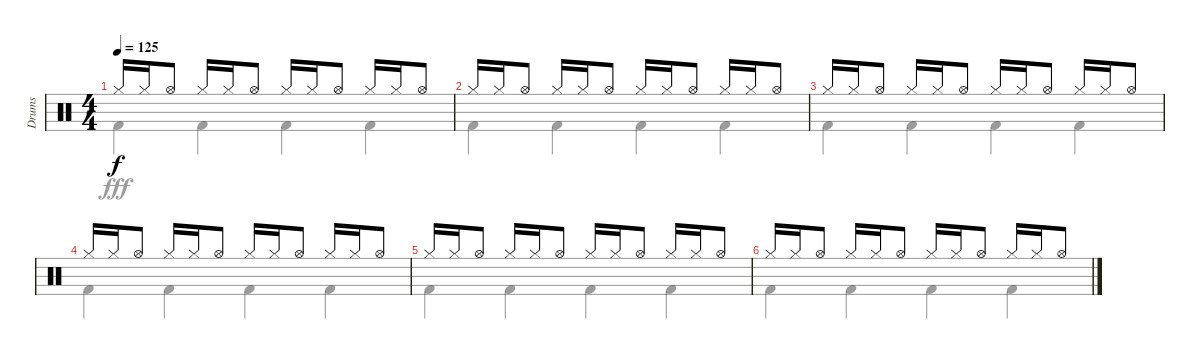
\track ("Drums" "Drums") {instrument percussion}
\staff {score}
\articulation defaults
\voice
\ts (4 4)
\tempo 125
\clef neutral
\ks c "Hi-Hat (closed)".16{dy f} "Hi-Hat (closed)".16 "Hi-Hat (open)".8 "Hi-Hat (closed)".16 "Hi-Hat (closed)".16 "Hi-Hat (open)".8 "Hi-Hat (closed)".16 "Hi-Hat (closed)".16 "Hi-Hat (open)".8 "Hi-Hat (closed)".16 "Hi-Hat (closed)".16 "Hi-Hat (open)".8
|
"Hi-Hat (closed)".16 "Hi-Hat (closed)".16 "Hi-Hat (open)".8 "Hi-Hat (closed)".16 "Hi-Hat (closed)".16 "Hi-Hat (open)".8 "Hi-Hat (closed)".16 "Hi-Hat (closed)".16 "Hi-Hat (open)".8 "Hi-Hat (closed)".16 "Hi-Hat (closed)".16 "Hi-Hat (open)".8 |
"Hi-Hat (closed)".16 "Hi-Hat (closed)".16 "Hi-Hat (open)".8 "Hi-Hat (closed)".16 "Hi-Hat (closed)".16 "Hi-Hat (open)".8 "Hi-Hat (closed)".16 "Hi-Hat (closed)".16 "Hi-Hat (open)".8 "Hi-Hat (closed)".16 "Hi-Hat (closed)".16 "Hi-Hat (open)".8 |
"Hi-Hat (closed)".16 "Hi-Hat (closed)".16 "Hi-Hat (open)".8 "Hi-Hat (closed)".16 "Hi-Hat (closed)".16 "Hi-Hat (open)".8 "Hi-Hat (closed)".16 "Hi-Hat (closed)".16 "Hi-Hat (open)".8 "Hi-Hat (closed)".16 "Hi-Hat (closed)".16 "Hi-Hat (open)".8 |
"Hi-Hat (closed)".16 "Hi-Hat (closed)".16 "Hi-Hat (open)".8 "Hi-Hat (closed)".16 "Hi-Hat (closed)".16 "Hi-Hat (open)".8 "Hi-Hat (closed)".16 "Hi-Hat (closed)".16 "Hi-Hat (open)".8 "Hi-Hat (closed)".16 "Hi-Hat (closed)".16 "Hi-Hat (open)".8 |
"Hi-Hat (closed)".16 "Hi-Hat (closed)".16 "Hi-Hat (open)".8 "Hi-Hat (closed)".16 "Hi-Hat (closed)".16 "Hi-Hat (open)".8 "Hi-Hat (closed)".16 "Hi-Hat (closed)".16 "Hi-Hat (open)".8 "Hi-Hat (closed)".16 "Hi-Hat (closed)".16 "Hi-Hat (open)".8
\voice
\clef neutral
\ottava regular
\simile none
\ks c "Kick (hit) 2".4{dy fff} "Kick (hit) 2".4 "Kick (hit) 2".4 "Kick (hit) 2".4
|
"Kick (hit) 2".4 "Kick (hit) 2".4 "Kick (hit) 2".4 "Kick (hit) 2".4 |
"Kick (hit) 2".4 "Kick (hit) 2".4 "Kick (hit) 2".4 "Kick (hit) 2".4 |
"Kick (hit) 2".4 "Kick (hit) 2".4 "Kick (hit) 2".4 "Kick (hit) 2".4 |
"Kick (hit) 2".4 "Kick (hit) 2".4 "Kick (hit) 2".4 "Kick (hit) 2".4 |
"Kick (hit) 2".4 "Kick (hit) 2".4 "Kick (hit) 2".4 "Kick (hit) 2".4
